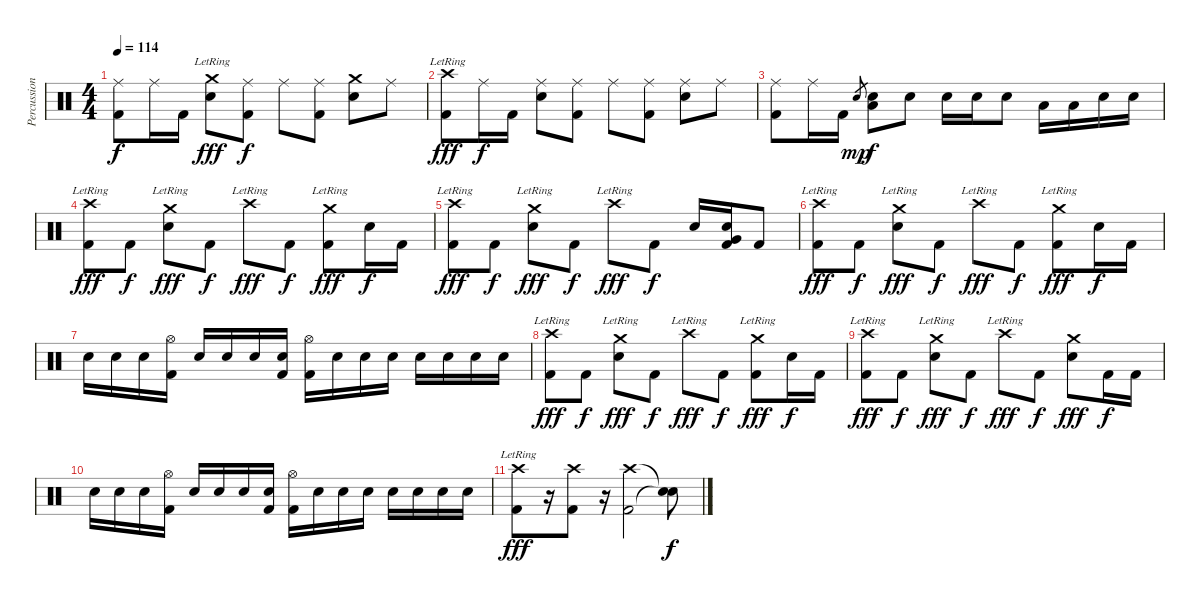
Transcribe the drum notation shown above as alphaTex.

\track ("Percussion" "Percussion") {instrument percussion}
\staff {score}
\articulation defaults
\ts (4 4)
\tempo 114
\clef neutral
\ks c
("Ride (middle)" "Kick (hit) 2").8{dy f} "Ride (middle)".16 "Kick (hit) 2".16 ("Crash medium (hit)"{lr} "Snare (hit) 2").8{dy fff} ("Ride (middle)" "Kick (hit) 2").8{dy f} "Ride (middle)".8 ("Ride (middle)" "Kick (hit) 2").8 ("Crash medium (hit)" "Snare (hit) 2").8 "Ride (middle)".8 |
("Crash high (hit)"{lr} "Kick (hit) 2").8{dy fff} "Ride (middle)".16{dy f} "Kick (hit) 2".16 ("Ride (middle)" "Snare (hit) 2").8 ("Ride (middle)" "Kick (hit) 2").8 "Ride (middle)".8 ("Ride (middle)" "Kick (hit) 2").8 ("Ride (middle)" "Snare (hit) 2").8 "Ride (middle)".8 |
("Ride (middle)" "Kick (hit) 2").8 "Ride (middle)".16 "Kick (hit) 2".16 "Snare (hit) 2".8{gr dy mp} ("Low Tom (hit)" "Snare (hit) 2").8{dy f} "Snare (hit) 2".8 "Snare (hit) 2".16 "Snare (hit) 2".16 "Snare (hit) 2".8 "Low Tom (hit)".16 "Low Tom (hit)".16 "Snare (hit) 2".16 "Snare (hit) 2".16 |
("Crash high (hit)"{lr} "Kick (hit) 2").8{dy fff} "Kick (hit) 2".8{dy f} ("Crash medium (hit)"{lr} "Snare (hit) 2").8{dy fff} "Kick (hit) 2".8{dy f} "Crash high (hit)"{lr}.8{dy fff} "Kick (hit) 2".8{dy f} ("Crash medium (hit)"{lr} "Kick (hit) 2").8{dy fff} "Snare (hit) 2".16{dy f} "Kick (hit) 2".16 |
("Crash high (hit)"{lr} "Kick (hit) 2").8{dy fff} "Kick (hit) 2".8{dy f} ("Crash medium (hit)"{lr} "Snare (hit) 2").8{dy fff} "Kick (hit) 2".8{dy f} "Crash high (hit)"{lr}.8{dy fff} "Kick (hit) 2".8{dy f} "Snare (hit) 2".16 ("Very Low Tom (hit)" "Snare (hit) 2" "Kick (hit) 2").16 "Kick (hit) 2".8 |
("Crash high (hit)"{lr} "Kick (hit) 2").8{dy fff} "Kick (hit) 2".8{dy f} ("Crash medium (hit)"{lr} "Snare (hit) 2").8{dy fff} "Kick (hit) 2".8{dy f} "Crash high (hit)"{lr}.8{dy fff} "Kick (hit) 2".8{dy f} ("Crash medium (hit)"{lr} "Kick (hit) 2").8{dy fff} "Snare (hit) 2".16{dy f} "Kick (hit) 2".16 |
"Snare (hit) 2".16 "Snare (hit) 2".16 "Snare (hit) 2".16 ("Hi-Hat (open)" "Kick (hit) 2").16 "Snare (hit) 2".16 "Snare (hit) 2".16 "Snare (hit) 2".16 ("Snare (hit) 2" "Kick (hit) 2").16 ("Hi-Hat (open)" "Kick (hit) 2").16 "Snare (hit) 2".16 "Snare (hit) 2".16 "Snare (hit) 2".16 "Snare (hit) 2".16 "Snare (hit) 2".16 "Snare (hit) 2".16 "Snare (hit) 2".16 |
("Crash high (hit)"{lr} "Kick (hit) 2").8{dy fff} "Kick (hit) 2".8{dy f} ("Crash medium (hit)"{lr} "Snare (hit) 2").8{dy fff} "Kick (hit) 2".8{dy f} "Crash high (hit)"{lr}.8{dy fff} "Kick (hit) 2".8{dy f} ("Crash medium (hit)"{lr} "Kick (hit) 2").8{dy fff} "Snare (hit) 2".16{dy f} "Kick (hit) 2".16 |
("Crash high (hit)"{lr} "Kick (hit) 2").8{dy fff} "Kick (hit) 2".8{dy f} ("Crash medium (hit)"{lr} "Snare (hit) 2").8{dy fff} "Kick (hit) 2".8{dy f} "Crash high (hit)"{lr}.8{dy fff} "Kick (hit) 2".8{dy f} ("Crash medium (hit)" "Snare (hit) 2").8{dy fff} "Kick (hit) 2".16{dy f} "Kick (hit) 2".16 |
"Snare (hit) 2".16 "Snare (hit) 2".16 "Snare (hit) 2".16 ("Hi-Hat (open)" "Kick (hit) 2").16 "Snare (hit) 2".16 "Snare (hit) 2".16 "Snare (hit) 2".16 ("Snare (hit) 2" "Kick (hit) 2").16 ("Hi-Hat (open)" "Kick (hit) 2").16 "Snare (hit) 2".16 "Snare (hit) 2".16 "Snare (hit) 2".16 "Snare (hit) 2".16 "Snare (hit) 2".16 "Snare (hit) 2".16 "Snare (hit) 2".16 |
("Crash high (hit)"{lr} "Kick (hit) 2").8{dy fff} r.16 ("Crash high (hit)" "Kick (hit) 2").8 r.16 ("Crash high (hit)" "Kick (hit) 2").2 ("Snare (hit)"{t} "Snare (hit)"{t}).8{dy f}
